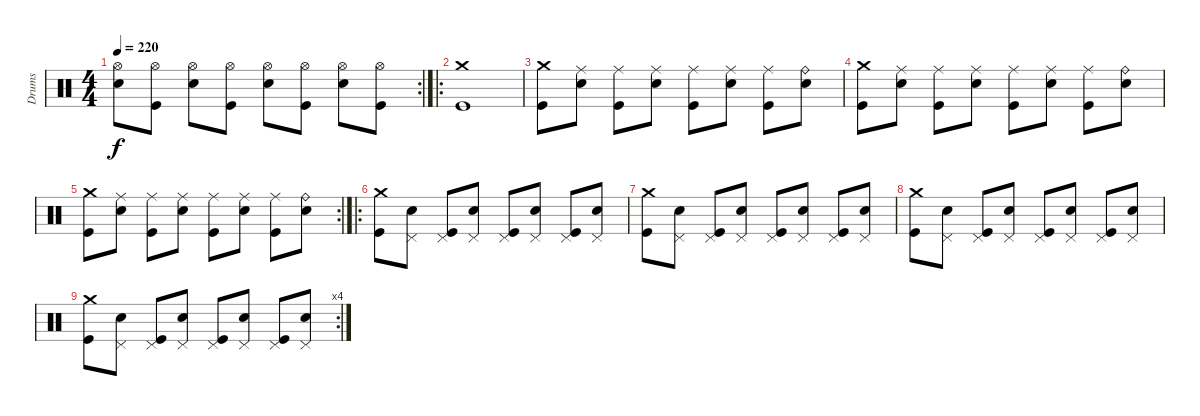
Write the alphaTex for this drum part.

\track ("Drums" "Drums") {instrument percussion}
\staff {score}
\articulation defaults
\rc 2
\ts (4 4)
\tempo 220
\clef neutral
\ks c
("Hi-Hat (open)" "Electric Snare (hit)").8{dy f} ("Hi-Hat (open)" "Kick (hit)").8 ("Hi-Hat (open)" "Electric Snare (hit)").8 ("Hi-Hat (open)" "Kick (hit)").8 ("Hi-Hat (open)" "Electric Snare (hit)").8 ("Hi-Hat (open)" "Kick (hit)").8 ("Hi-Hat (open)" "Electric Snare (hit)").8 ("Hi-Hat (open)" "Kick (hit)").8 |
\ro
("Crash medium (hit)" "Kick (hit)").1 |
("Crash medium (hit)" "Kick (hit)").8 ("Ride (middle)" "Electric Snare (hit)").8 ("Ride (middle)" "Kick (hit)").8 ("Ride (middle)" "Electric Snare (hit)").8 ("Ride (middle)" "Kick (hit)").8 ("Ride (middle)" "Electric Snare (hit)").8 ("Ride (middle)" "Kick (hit)").8 ("Ride (bell)" "Electric Snare (hit)").8 |
("Crash medium (hit)" "Kick (hit)").8 ("Ride (middle)" "Electric Snare (hit)").8 ("Ride (middle)" "Kick (hit)").8 ("Ride (middle)" "Electric Snare (hit)").8 ("Ride (middle)" "Kick (hit)").8 ("Ride (middle)" "Electric Snare (hit)").8 ("Ride (middle)" "Kick (hit)").8 ("Ride (bell)" "Electric Snare (hit)").8 |
\rc 2
("Crash medium (hit)" "Kick (hit)").8 ("Ride (middle)" "Electric Snare (hit)").8 ("Ride (middle)" "Kick (hit)").8 ("Ride (middle)" "Electric Snare (hit)").8 ("Ride (middle)" "Kick (hit)").8 ("Ride (middle)" "Electric Snare (hit)").8 ("Ride (middle)" "Kick (hit)").8 ("Ride (bell)" "Electric Snare (hit)").8 |
\ro
("Crash medium (hit)" "Kick (hit)").8 ("Pedal Hi-Hat (hit)" "Electric Snare (hit)").8 ("Pedal Hi-Hat (hit)" "Kick (hit)").8 ("Pedal Hi-Hat (hit)" "Electric Snare (hit)").8 ("Pedal Hi-Hat (hit)" "Kick (hit)").8 ("Pedal Hi-Hat (hit)" "Electric Snare (hit)").8 ("Pedal Hi-Hat (hit)" "Kick (hit)").8 ("Pedal Hi-Hat (hit)" "Electric Snare (hit)").8 |
("Crash medium (hit)" "Kick (hit)").8 ("Pedal Hi-Hat (hit)" "Electric Snare (hit)").8 ("Pedal Hi-Hat (hit)" "Kick (hit)").8 ("Pedal Hi-Hat (hit)" "Electric Snare (hit)").8 ("Pedal Hi-Hat (hit)" "Kick (hit)").8 ("Pedal Hi-Hat (hit)" "Electric Snare (hit)").8 ("Pedal Hi-Hat (hit)" "Kick (hit)").8 ("Pedal Hi-Hat (hit)" "Electric Snare (hit)").8 |
("Crash medium (hit)" "Kick (hit)").8 ("Pedal Hi-Hat (hit)" "Electric Snare (hit)").8 ("Pedal Hi-Hat (hit)" "Kick (hit)").8 ("Pedal Hi-Hat (hit)" "Electric Snare (hit)").8 ("Pedal Hi-Hat (hit)" "Kick (hit)").8 ("Pedal Hi-Hat (hit)" "Electric Snare (hit)").8 ("Pedal Hi-Hat (hit)" "Kick (hit)").8 ("Pedal Hi-Hat (hit)" "Electric Snare (hit)").8 |
\rc 4
("Crash medium (hit)" "Kick (hit)").8 ("Pedal Hi-Hat (hit)" "Electric Snare (hit)").8 ("Pedal Hi-Hat (hit)" "Kick (hit)").8 ("Pedal Hi-Hat (hit)" "Electric Snare (hit)").8 ("Pedal Hi-Hat (hit)" "Kick (hit)").8 ("Pedal Hi-Hat (hit)" "Electric Snare (hit)").8 ("Pedal Hi-Hat (hit)" "Kick (hit)").8 ("Pedal Hi-Hat (hit)" "Electric Snare (hit)").8
